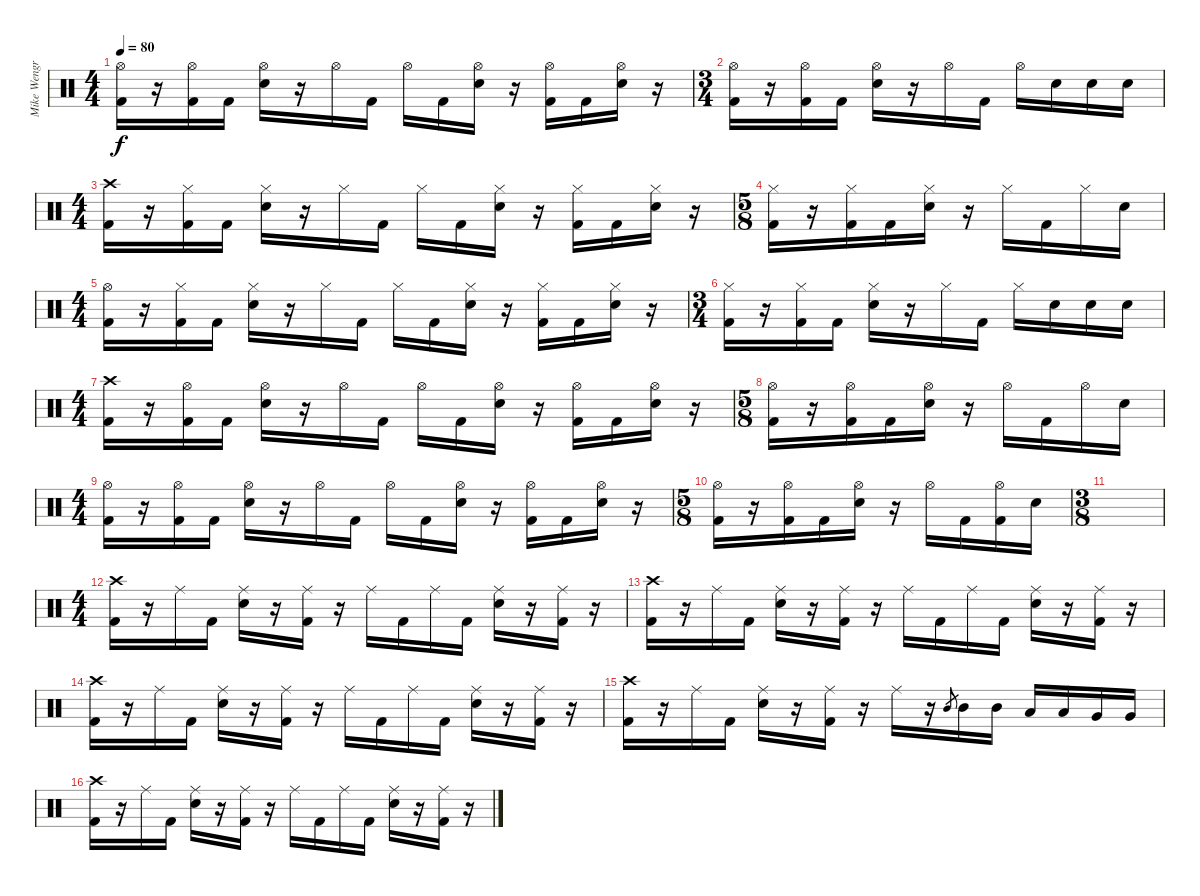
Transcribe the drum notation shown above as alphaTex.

\track ("Mike Wengren (Drums)" "Mike Wengr") {instrument percussion}
\staff {score}
\articulation defaults
\ts (4 4)
\tempo 80
\clef neutral
\ks c
("Hi-Hat (open)" "Kick (hit) 2").16{dy f} r.16 ("Hi-Hat (open)" "Kick (hit) 2").16 "Kick (hit) 2".16 ("Hi-Hat (open)" "Electric Snare (hit)").16 r.16 "Hi-Hat (open)".16 "Kick (hit) 2".16 "Hi-Hat (open)".16 "Kick (hit) 2".16 ("Hi-Hat (open)" "Electric Snare (hit)").16 r.16 ("Hi-Hat (open)" "Kick (hit) 2").16 "Kick (hit) 2".16 ("Hi-Hat (open)" "Electric Snare (hit)").16 r.16 |
\ts (3 4)
("Hi-Hat (open)" "Kick (hit) 2").16 r.16 ("Hi-Hat (open)" "Kick (hit) 2").16 "Kick (hit) 2".16 ("Hi-Hat (open)" "Electric Snare (hit)").16 r.16 "Hi-Hat (open)".16 "Kick (hit) 2".16 "Hi-Hat (open)".16 "Electric Snare (hit)".16 "Electric Snare (hit)".16 "Electric Snare (hit)".16 |
\ts (4 4)
("Crash high (hit)" "Kick (hit) 2").16 r.16 ("Hi-Hat (closed)" "Kick (hit) 2").16 "Kick (hit) 2".16 ("Hi-Hat (closed)" "Electric Snare (hit)").16 r.16 "Hi-Hat (closed)".16 "Kick (hit) 2".16 "Hi-Hat (closed)".16 "Kick (hit) 2".16 ("Hi-Hat (closed)" "Electric Snare (hit)").16 r.16 ("Hi-Hat (closed)" "Kick (hit) 2").16 "Kick (hit) 2".16 ("Hi-Hat (closed)" "Electric Snare (hit)").16 r.16 |
\ts (5 8)
("Hi-Hat (closed)" "Kick (hit) 2").16 r.16 ("Hi-Hat (closed)" "Kick (hit) 2").16 "Kick (hit) 2".16 ("Hi-Hat (closed)" "Electric Snare (hit)").16 r.16 "Hi-Hat (closed)".16 "Kick (hit) 2".16 "Hi-Hat (closed)".16 "Electric Snare (hit)".16 |
\ts (4 4)
("Hi-Hat (open)" "Kick (hit) 2").16 r.16 ("Hi-Hat (closed)" "Kick (hit) 2").16 "Kick (hit) 2".16 ("Hi-Hat (closed)" "Electric Snare (hit)").16 r.16 "Hi-Hat (closed)".16 "Kick (hit) 2".16 "Hi-Hat (closed)".16 "Kick (hit) 2".16 ("Hi-Hat (closed)" "Electric Snare (hit)").16 r.16 ("Hi-Hat (closed)" "Kick (hit) 2").16 "Kick (hit) 2".16 ("Hi-Hat (closed)" "Electric Snare (hit)").16 r.16 |
\ts (3 4)
("Hi-Hat (closed)" "Kick (hit) 2").16 r.16 ("Hi-Hat (closed)" "Kick (hit) 2").16 "Kick (hit) 2".16 ("Hi-Hat (closed)" "Electric Snare (hit)").16 r.16 "Hi-Hat (closed)".16 "Kick (hit) 2".16 "Hi-Hat (closed)".16 "Electric Snare (hit)".16 "Electric Snare (hit)".16 "Electric Snare (hit)".16 |
\ts (4 4)
("Crash high (hit)" "Kick (hit) 2").16 r.16 ("Hi-Hat (open)" "Kick (hit) 2").16 "Kick (hit) 2".16 ("Hi-Hat (open)" "Electric Snare (hit)").16 r.16 "Hi-Hat (open)".16 "Kick (hit) 2".16 "Hi-Hat (open)".16 "Kick (hit) 2".16 ("Hi-Hat (open)" "Electric Snare (hit)").16 r.16 ("Hi-Hat (open)" "Kick (hit) 2").16 "Kick (hit) 2".16 ("Hi-Hat (open)" "Electric Snare (hit)").16 r.16 |
\ts (5 8)
("Hi-Hat (open)" "Kick (hit) 2").16 r.16 ("Hi-Hat (open)" "Kick (hit) 2").16 "Kick (hit) 2".16 ("Hi-Hat (open)" "Electric Snare (hit)").16 r.16 "Hi-Hat (open)".16 "Kick (hit) 2".16 "Hi-Hat (open)".16 "Electric Snare (hit)".16 |
\ts (4 4)
("Hi-Hat (open)" "Kick (hit) 2").16 r.16 ("Hi-Hat (open)" "Kick (hit) 2").16 "Kick (hit) 2".16 ("Hi-Hat (open)" "Electric Snare (hit)").16 r.16 "Hi-Hat (open)".16 "Kick (hit) 2".16 "Hi-Hat (open)".16 "Kick (hit) 2".16 ("Hi-Hat (open)" "Electric Snare (hit)").16 r.16 ("Hi-Hat (open)" "Kick (hit) 2").16 "Kick (hit) 2".16 ("Hi-Hat (open)" "Electric Snare (hit)").16 r.16 |
\ts (5 8)
("Hi-Hat (open)" "Kick (hit) 2").16 r.16 ("Hi-Hat (open)" "Kick (hit) 2").16 "Kick (hit) 2".16 ("Hi-Hat (open)" "Electric Snare (hit)").16 r.16 "Hi-Hat (open)".16 "Kick (hit) 2".16 ("Hi-Hat (open)" "Kick (hit) 2").16 "Electric Snare (hit)".16 |
\ts (3 8)
|
\ts (4 4)
("Crash high (hit)" "Kick (hit) 2").16 r.16 "Ride (middle)".16 "Kick (hit) 2".16 ("Ride (middle)" "Electric Snare (hit)").16 r.16 ("Ride (middle)" "Kick (hit) 2").16 r.16 "Ride (middle)".16 "Kick (hit) 2".16 "Ride (middle)".16 "Kick (hit) 2".16 ("Ride (middle)" "Electric Snare (hit)").16 r.16 ("Ride (middle)" "Kick (hit) 2").16 r.16 |
("Crash high (hit)" "Kick (hit) 2").16 r.16 "Ride (middle)".16 "Kick (hit) 2".16 ("Ride (middle)" "Electric Snare (hit)").16 r.16 ("Ride (middle)" "Kick (hit) 2").16 r.16 "Ride (middle)".16 "Kick (hit) 2".16 "Ride (middle)".16 "Kick (hit) 2".16 ("Ride (middle)" "Electric Snare (hit)").16 r.16 ("Ride (middle)" "Kick (hit) 2").16 r.16 |
("Crash high (hit)" "Kick (hit) 2").16 r.16 "Ride (middle)".16 "Kick (hit) 2".16 ("Ride (middle)" "Electric Snare (hit)").16 r.16 ("Ride (middle)" "Kick (hit) 2").16 r.16 "Ride (middle)".16 "Kick (hit) 2".16 "Ride (middle)".16 "Kick (hit) 2".16 ("Ride (middle)" "Electric Snare (hit)").16 r.16 ("Ride (middle)" "Kick (hit) 2").16 r.16 |
("Crash high (hit)" "Kick (hit) 2").16 r.16 "Ride (middle)".16 "Kick (hit) 2".16 ("Ride (middle)" "Electric Snare (hit)").16 r.16 ("Ride (middle)" "Kick (hit) 2").16 r.16 "Ride (middle)".16 r.16 "Mid Tom (hit)".8{gr} "Mid Tom (hit)".16 "Mid Tom (hit)".16 "Low Tom (hit)".16 "Low Tom (hit)".16 "Very Low Tom (hit)".16 "Very Low Tom (hit)".16 |
("Crash high (hit)" "Kick (hit) 2").16 r.16 "Ride (middle)".16 "Kick (hit) 2".16 ("Ride (middle)" "Electric Snare (hit)").16 r.16 ("Ride (middle)" "Kick (hit) 2").16 r.16 "Ride (middle)".16 "Kick (hit) 2".16 "Ride (middle)".16 "Kick (hit) 2".16 ("Ride (middle)" "Electric Snare (hit)").16 r.16 ("Ride (middle)" "Kick (hit) 2").16 r.16
